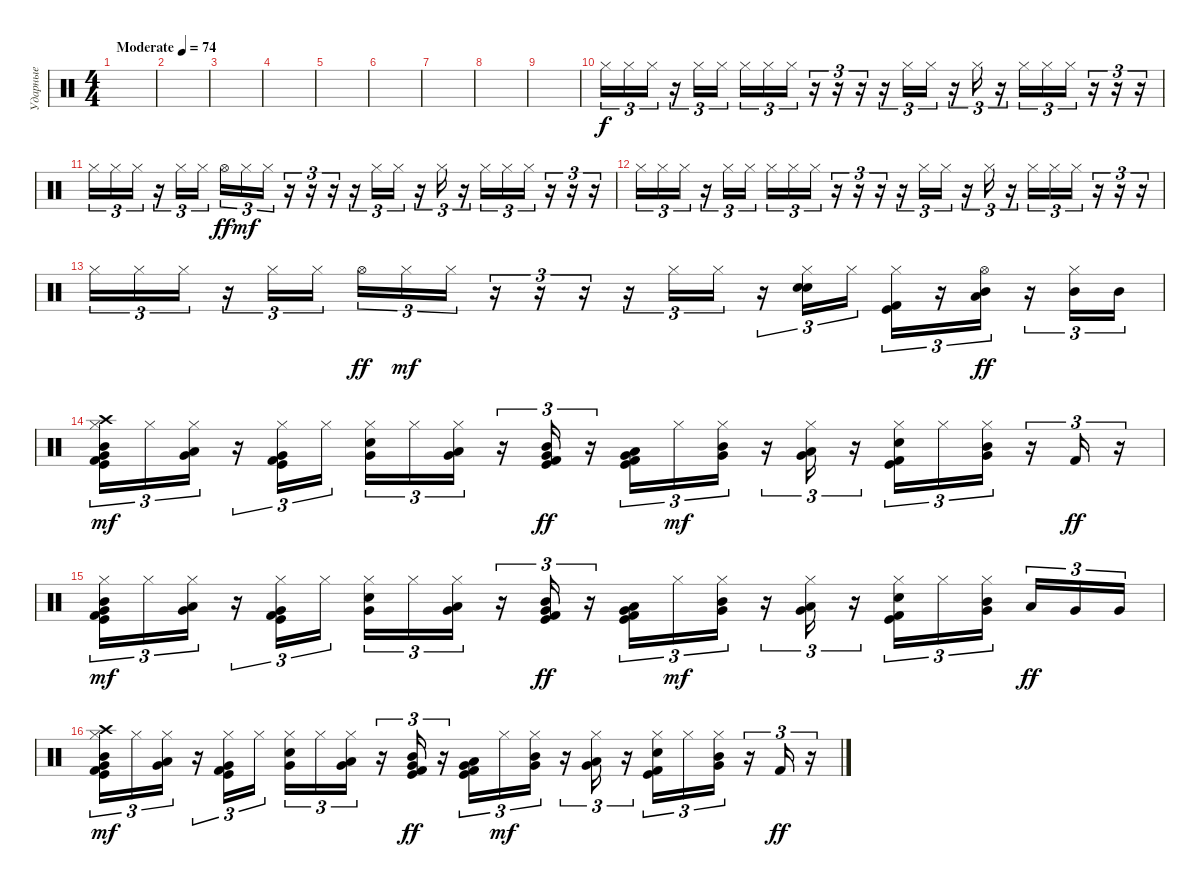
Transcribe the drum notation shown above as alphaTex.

\track ("Ударные" "Ударные") {instrument percussion}
\staff {score}
\articulation defaults
\ts (4 4)
\tempo (74 "Moderate")
\clef neutral
\ks c
|
|
|
|
|
|
|
|
|
"Hi-Hat (closed)".16{tu (3 2)} "Hi-Hat (closed)".16{tu (3 2)} "Hi-Hat (closed)".16{tu (3 2)} r.16{tu (3 2)} "Hi-Hat (closed)".16{tu (3 2)} "Hi-Hat (closed)".16{tu (3 2)} "Hi-Hat (closed)".16{tu (3 2)} "Hi-Hat (closed)".16{tu (3 2)} "Hi-Hat (closed)".16{tu (3 2)} r.16{tu (3 2)} r.16{tu (3 2)} r.16{tu (3 2)} r.16{tu (3 2)} "Hi-Hat (closed)".16{tu (3 2)} "Hi-Hat (closed)".16{tu (3 2)} r.16{tu (3 2)} "Hi-Hat (closed)".16{tu (3 2)} r.16{tu (3 2)} "Hi-Hat (closed)".16{tu (3 2)} "Hi-Hat (closed)".16{tu (3 2)} "Hi-Hat (closed)".16{tu (3 2)} r.16{tu (3 2)} r.16{tu (3 2)} r.16{tu (3 2)} |
"Hi-Hat (closed)".16{tu (3 2)} "Hi-Hat (closed)".16{tu (3 2)} "Hi-Hat (closed)".16{tu (3 2)} r.16{tu (3 2)} "Hi-Hat (closed)".16{tu (3 2)} "Hi-Hat (closed)".16{tu (3 2)} "Hi-Hat (open)".16{tu (3 2) dy ff} "Hi-Hat (closed)".16{tu (3 2) dy mf} "Hi-Hat (closed)".16{tu (3 2)} r.16{tu (3 2)} r.16{tu (3 2)} r.16{tu (3 2)} r.16{tu (3 2)} "Hi-Hat (closed)".16{tu (3 2)} "Hi-Hat (closed)".16{tu (3 2)} r.16{tu (3 2)} "Hi-Hat (closed)".16{tu (3 2)} r.16{tu (3 2)} "Hi-Hat (closed)".16{tu (3 2)} "Hi-Hat (closed)".16{tu (3 2)} "Hi-Hat (closed)".16{tu (3 2)} r.16{tu (3 2)} r.16{tu (3 2)} r.16{tu (3 2)} |
"Hi-Hat (closed)".16{tu (3 2)} "Hi-Hat (closed)".16{tu (3 2)} "Hi-Hat (closed)".16{tu (3 2)} r.16{tu (3 2)} "Hi-Hat (closed)".16{tu (3 2)} "Hi-Hat (closed)".16{tu (3 2)} "Hi-Hat (closed)".16{tu (3 2)} "Hi-Hat (closed)".16{tu (3 2)} "Hi-Hat (closed)".16{tu (3 2)} r.16{tu (3 2)} r.16{tu (3 2)} r.16{tu (3 2)} r.16{tu (3 2)} "Hi-Hat (closed)".16{tu (3 2)} "Hi-Hat (closed)".16{tu (3 2)} r.16{tu (3 2)} "Hi-Hat (closed)".16{tu (3 2)} r.16{tu (3 2)} "Hi-Hat (closed)".16{tu (3 2)} "Hi-Hat (closed)".16{tu (3 2)} "Hi-Hat (closed)".16{tu (3 2)} r.16{tu (3 2)} r.16{tu (3 2)} r.16{tu (3 2)} |
"Hi-Hat (closed)".16{tu (3 2)} "Hi-Hat (closed)".16{tu (3 2)} "Hi-Hat (closed)".16{tu (3 2)} r.16{tu (3 2)} "Hi-Hat (closed)".16{tu (3 2)} "Hi-Hat (closed)".16{tu (3 2)} "Hi-Hat (open)".16{tu (3 2) dy ff} "Hi-Hat (closed)".16{tu (3 2) dy mf} "Hi-Hat (closed)".16{tu (3 2)} r.16{tu (3 2)} r.16{tu (3 2)} r.16{tu (3 2)} r.16{tu (3 2)} "Hi-Hat (closed)".16{tu (3 2)} "Hi-Hat (closed)".16{tu (3 2)} r.16{tu (3 2)} ("Electric Snare (hit)" "Snare (hit) 2" "Hi-Hat (closed)").16{tu (3 2)} "Hi-Hat (closed)".16{tu (3 2)} ("Kick (hit)" "Kick (hit) 2" "Hi-Hat (closed)").16{tu (3 2)} r.16{tu (3 2)} ("Low Tom (hit)" "Mid Tom (hit)" "Hi-Hat (open)").16{tu (3 2) dy ff} r.16{tu (3 2)} ("Mid Tom (hit)" "Hi-Hat (closed)").16{tu (3 2)} "Mid Tom (hit)".16{tu (3 2)} |
("Crash high (hit)" "Kick (hit) 2" "Very Low Tom (hit)" "Kick (hit)" "Mid Tom (hit)" "Hi-Hat (closed)").16{tu (3 2) dy mf} "Hi-Hat (closed)".16{tu (3 2)} ("Very Low Tom (hit)" "Low Tom (hit)" "Hi-Hat (closed)").16{tu (3 2)} r.16{tu (3 2)} ("Very Low Tom (hit)" "Kick (hit)" "Kick (hit) 2" "Hi-Hat (closed)").16{tu (3 2)} "Hi-Hat (closed)".16{tu (3 2)} ("Electric Snare (hit)" "Very Low Tom (hit)" "Hi-Hat (closed)").16{tu (3 2)} "Hi-Hat (closed)".16{tu (3 2)} ("Very Low Tom (hit)" "Low Tom (hit)" "Hi-Hat (closed)").16{tu (3 2)} r.16{tu (3 2)} ("Kick (hit) 2" "Very Low Tom (hit)" "Kick (hit)" "Mid Tom (hit)").16{tu (3 2) dy ff} r.16{tu (3 2)} ("Kick (hit) 2" "Very Low Tom (hit)" "Kick (hit)" "Low Tom (hit)").16{tu (3 2)} "Hi-Hat (closed)".16{tu (3 2) dy mf} ("Very Low Tom (hit)" "Mid Tom (hit)" "Hi-Hat (closed)").16{tu (3 2)} r.16{tu (3 2)} ("Very Low Tom (hit)" "Low Tom (hit)" "Hi-Hat (closed)").16{tu (3 2)} r.16{tu (3 2)} ("Electric Snare (hit)" "Kick (hit) 2" "Kick (hit)" "Hi-Hat (closed)").16{tu (3 2)} "Hi-Hat (closed)".16{tu (3 2)} ("Very Low Tom (hit)" "Mid Tom (hit)" "Hi-Hat (closed)").16{tu (3 2)} r.16{tu (3 2)} "Kick (hit) 2".16{tu (3 2) dy ff} r.16{tu (3 2)} |
("Kick (hit) 2" "Very Low Tom (hit)" "Kick (hit)" "Mid Tom (hit)" "Hi-Hat (closed)").16{tu (3 2) dy mf} "Hi-Hat (closed)".16{tu (3 2)} ("Very Low Tom (hit)" "Low Tom (hit)" "Hi-Hat (closed)").16{tu (3 2)} r.16{tu (3 2)} ("Very Low Tom (hit)" "Kick (hit)" "Kick (hit) 2" "Hi-Hat (closed)").16{tu (3 2)} "Hi-Hat (closed)".16{tu (3 2)} ("Electric Snare (hit)" "Very Low Tom (hit)" "Hi-Hat (closed)").16{tu (3 2)} "Hi-Hat (closed)".16{tu (3 2)} ("Very Low Tom (hit)" "Low Tom (hit)" "Hi-Hat (closed)").16{tu (3 2)} r.16{tu (3 2)} ("Kick (hit) 2" "Very Low Tom (hit)" "Kick (hit)" "Mid Tom (hit)").16{tu (3 2) dy ff} r.16{tu (3 2)} ("Kick (hit) 2" "Very Low Tom (hit)" "Kick (hit)" "Low Tom (hit)").16{tu (3 2)} "Hi-Hat (closed)".16{tu (3 2) dy mf} ("Very Low Tom (hit)" "Mid Tom (hit)" "Hi-Hat (closed)").16{tu (3 2)} r.16{tu (3 2)} ("Very Low Tom (hit)" "Low Tom (hit)" "Hi-Hat (closed)").16{tu (3 2)} r.16{tu (3 2)} ("Electric Snare (hit)" "Kick (hit) 2" "Kick (hit)" "Hi-Hat (closed)").16{tu (3 2)} "Hi-Hat (closed)".16{tu (3 2)} ("Very Low Tom (hit)" "Mid Tom (hit)" "Hi-Hat (closed)").16{tu (3 2) beam splitsecondary} "Low Tom (hit)".16{tu (3 2) dy ff} "Very Low Tom (hit)".16{tu (3 2)} "Very Low Tom (hit)".16{tu (3 2)} |
("Crash high (hit)" "Kick (hit) 2" "Very Low Tom (hit)" "Kick (hit)" "Mid Tom (hit)" "Hi-Hat (closed)").16{tu (3 2) dy mf} "Hi-Hat (closed)".16{tu (3 2)} ("Very Low Tom (hit)" "Low Tom (hit)" "Hi-Hat (closed)").16{tu (3 2)} r.16{tu (3 2)} ("Very Low Tom (hit)" "Kick (hit)" "Kick (hit) 2" "Hi-Hat (closed)").16{tu (3 2)} "Hi-Hat (closed)".16{tu (3 2)} ("Electric Snare (hit)" "Very Low Tom (hit)" "Hi-Hat (closed)").16{tu (3 2)} "Hi-Hat (closed)".16{tu (3 2)} ("Very Low Tom (hit)" "Low Tom (hit)" "Hi-Hat (closed)").16{tu (3 2)} r.16{tu (3 2)} ("Kick (hit) 2" "Very Low Tom (hit)" "Kick (hit)" "Mid Tom (hit)").16{tu (3 2) dy ff} r.16{tu (3 2)} ("Kick (hit) 2" "Very Low Tom (hit)" "Kick (hit)" "Low Tom (hit)").16{tu (3 2)} "Hi-Hat (closed)".16{tu (3 2) dy mf} ("Very Low Tom (hit)" "Mid Tom (hit)" "Hi-Hat (closed)").16{tu (3 2)} r.16{tu (3 2)} ("Very Low Tom (hit)" "Low Tom (hit)" "Hi-Hat (closed)").16{tu (3 2)} r.16{tu (3 2)} ("Electric Snare (hit)" "Kick (hit) 2" "Kick (hit)" "Hi-Hat (closed)").16{tu (3 2)} "Hi-Hat (closed)".16{tu (3 2)} ("Very Low Tom (hit)" "Mid Tom (hit)" "Hi-Hat (closed)").16{tu (3 2)} r.16{tu (3 2)} "Kick (hit) 2".16{tu (3 2) dy ff} r.16{tu (3 2)}
